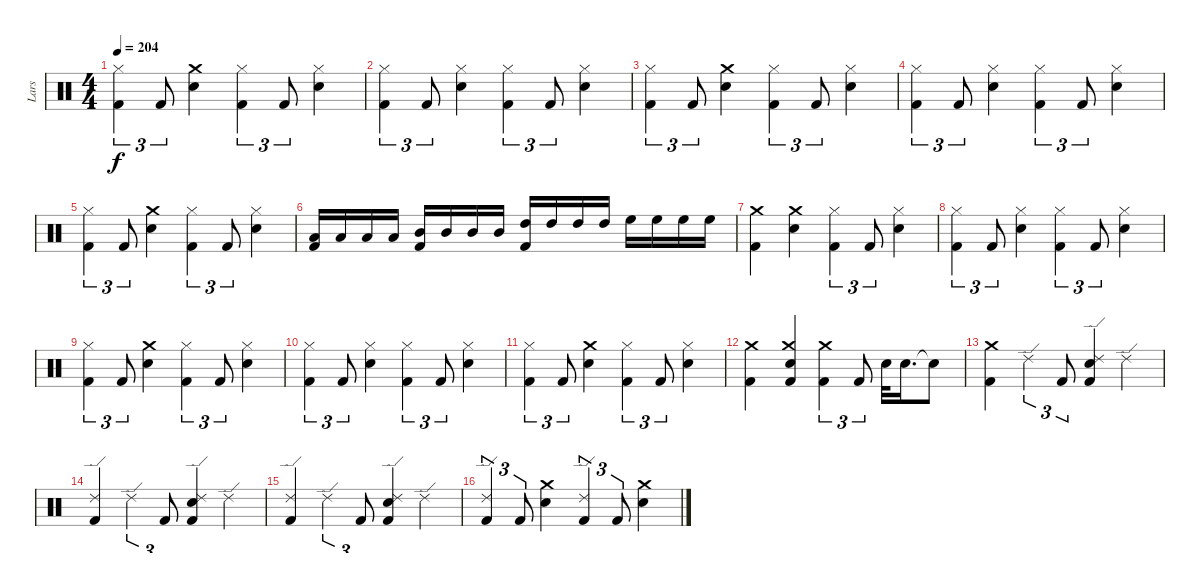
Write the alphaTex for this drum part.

\track ("Lars" "Lars") {instrument percussion}
\staff {score}
\articulation defaults
\ts (4 4)
\tempo 204
\clef neutral
\ks c
("Kick (hit) 2" "Hi-Hat (closed)").4{tu (3 2) dy f} "Kick (hit) 2".8{tu (3 2)} ("Crash medium (hit)" "Snare (hit) 2").4 ("Kick (hit) 2" "Hi-Hat (closed)").4{tu (3 2)} "Kick (hit) 2".8{tu (3 2)} ("Snare (hit) 2" "Hi-Hat (closed)").4 |
("Kick (hit) 2" "Hi-Hat (closed)").4{tu (3 2)} "Kick (hit) 2".8{tu (3 2)} ("Snare (hit) 2" "Hi-Hat (closed)").4 ("Kick (hit) 2" "Hi-Hat (closed)").4{tu (3 2)} "Kick (hit) 2".8{tu (3 2)} ("Snare (hit) 2" "Hi-Hat (closed)").4 |
("Kick (hit) 2" "Hi-Hat (closed)").4{tu (3 2)} "Kick (hit) 2".8{tu (3 2)} ("Crash medium (hit)" "Snare (hit) 2").4 ("Kick (hit) 2" "Hi-Hat (closed)").4{tu (3 2)} "Kick (hit) 2".8{tu (3 2)} ("Snare (hit) 2" "Hi-Hat (closed)").4 |
("Kick (hit) 2" "Hi-Hat (closed)").4{tu (3 2)} "Kick (hit) 2".8{tu (3 2)} ("Snare (hit) 2" "Hi-Hat (closed)").4 ("Kick (hit) 2" "Hi-Hat (closed)").4{tu (3 2)} "Kick (hit) 2".8{tu (3 2)} ("Snare (hit) 2" "Hi-Hat (closed)").4 |
("Kick (hit) 2" "Hi-Hat (closed)").4{tu (3 2)} "Kick (hit) 2".8{tu (3 2)} ("Crash medium (hit)" "Snare (hit) 2").4 ("Kick (hit) 2" "Hi-Hat (closed)").4{tu (3 2)} "Kick (hit) 2".8{tu (3 2)} ("Snare (hit) 2" "Hi-Hat (closed)").4 |
("Low Tom (hit)" "Kick (hit) 2").16 "Low Tom (hit)".16 "Low Tom (hit)".16 "Low Tom (hit)".16 ("Mid Tom (hit)" "Kick (hit) 2").16 "Mid Tom (hit)".16 "Mid Tom (hit)".16 "Mid Tom (hit)".16 ("High Tom (hit)" "Kick (hit) 2").16 "High Tom (hit)".16 "High Tom (hit)".16 "High Tom (hit)".16 "High Floor Tom (hit)".16 "High Floor Tom (hit)".16 "High Floor Tom (hit)".16 "High Floor Tom (hit)".16 |
("Kick (hit) 2" "Crash medium (hit)").4 ("Snare (hit) 2" "Crash medium (hit)").4 ("Hi-Hat (closed)" "Kick (hit) 2").4{tu (3 2)} "Kick (hit) 2".8{tu (3 2)} ("Hi-Hat (closed)" "Snare (hit) 2").4 |
("Kick (hit) 2" "Hi-Hat (closed)").4{tu (3 2)} "Kick (hit) 2".8{tu (3 2)} ("Snare (hit) 2" "Hi-Hat (closed)").4 ("Kick (hit) 2" "Hi-Hat (closed)").4{tu (3 2)} "Kick (hit) 2".8{tu (3 2)} ("Snare (hit) 2" "Hi-Hat (closed)").4 |
("Kick (hit) 2" "Hi-Hat (closed)").4{tu (3 2)} "Kick (hit) 2".8{tu (3 2)} ("Crash medium (hit)" "Snare (hit) 2").4 ("Kick (hit) 2" "Hi-Hat (closed)").4{tu (3 2)} "Kick (hit) 2".8{tu (3 2)} ("Snare (hit) 2" "Hi-Hat (closed)").4 |
("Kick (hit) 2" "Hi-Hat (closed)").4{tu (3 2)} "Kick (hit) 2".8{tu (3 2)} ("Snare (hit) 2" "Hi-Hat (closed)").4 ("Kick (hit) 2" "Hi-Hat (closed)").4{tu (3 2)} "Kick (hit) 2".8{tu (3 2)} ("Snare (hit) 2" "Hi-Hat (closed)").4 |
("Kick (hit) 2" "Hi-Hat (closed)").4{tu (3 2)} "Kick (hit) 2".8{tu (3 2)} ("Crash medium (hit)" "Snare (hit) 2").4 ("Kick (hit) 2" "Hi-Hat (closed)").4{tu (3 2)} "Kick (hit) 2".8{tu (3 2)} ("Snare (hit) 2" "Hi-Hat (closed)").4 |
("Kick (hit) 2" "Crash medium (hit)").4 ("Kick (hit) 2" "Snare (hit) 2" "Crash medium (hit)").4 ("Kick (hit) 2" "Crash medium (hit)").4{tu (3 2)} "Kick (hit) 2".8{tu (3 2)} "Snare (hit) 2".32 "Snare (hit) 2".16{d} "Snare (hit)"{t}.8 |
("Kick (hit) 2" "Crash medium (hit)").4 "Ride (edge) 2".4{tu (3 2)} "Kick (hit) 2".8{tu (3 2)} ("Kick (hit) 2" "Snare (hit) 2" "Ride (edge) 2").4 "Ride (edge) 2".4 |
("Kick (hit) 2" "Ride (edge) 2").4 "Ride (edge) 2".4{tu (3 2)} "Kick (hit) 2".8{tu (3 2)} ("Kick (hit) 2" "Snare (hit) 2" "Ride (edge) 2").4 "Ride (edge) 2".4 |
("Kick (hit) 2" "Ride (edge) 2").4 "Ride (edge) 2".4{tu (3 2)} "Kick (hit) 2".8{tu (3 2)} ("Kick (hit) 2" "Snare (hit) 2" "Ride (edge) 2").4 "Ride (edge) 2".4 |
("Ride (edge) 2" "Kick (hit) 2").4{tu (3 2)} "Kick (hit) 2".8{tu (3 2)} ("Snare (hit) 2" "Crash medium (hit)").4 ("Ride (edge) 2" "Kick (hit) 2").4{tu (3 2)} "Kick (hit) 2".8{tu (3 2)} ("Snare (hit) 2" "Crash medium (hit)").4
